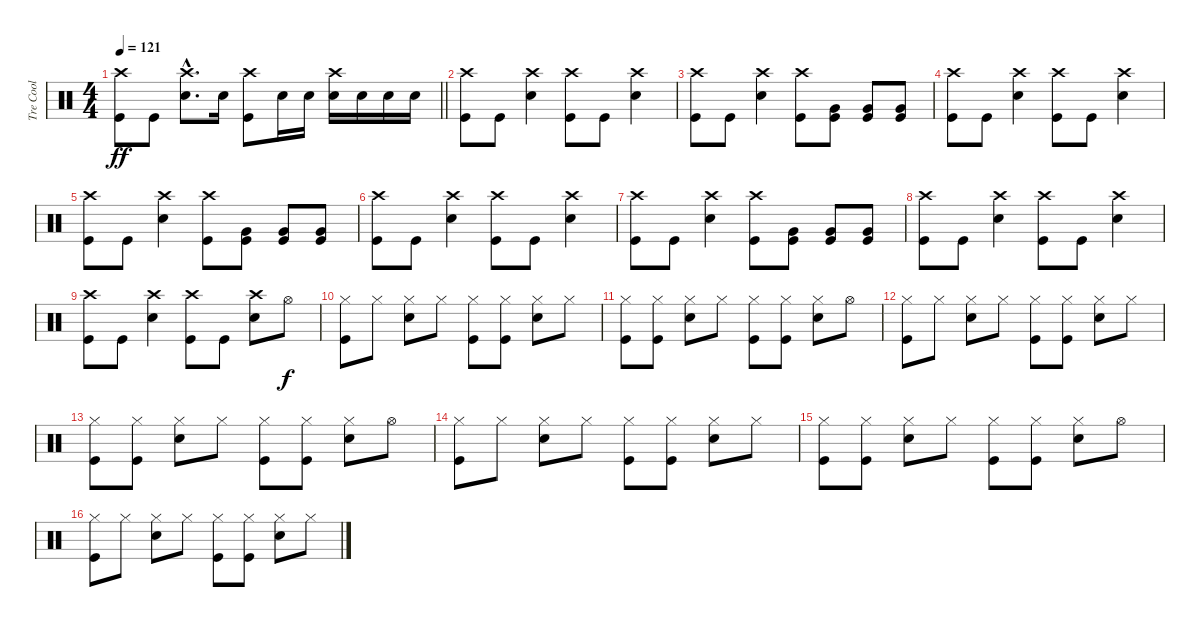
\track ("Tre Cool" "Tre Cool") {instrument percussion}
\staff {score}
\articulation defaults
\ts (4 4)
\tempo 121
\clef neutral
\barLineRight lightlight
\ks c
("Crash high (hit)" "Kick (hit)").8{dy ff} "Kick (hit)".8 ("Crash high (hit)"{hac} "Snare (hit) 2"{hac}).8{d} "Snare (hit) 2".16 ("Crash high (hit)" "Kick (hit)").8 "Snare (hit) 2".16 "Snare (hit) 2".16 ("Crash high (hit)" "Snare (hit) 2").16 "Snare (hit) 2".16 "Snare (hit) 2".16 "Snare (hit) 2".16 |
("Crash high (hit)" "Kick (hit)").8 "Kick (hit)".8 ("Crash high (hit)" "Snare (hit) 2").4 ("Crash high (hit)" "Kick (hit)").8 "Kick (hit)".8 ("Crash high (hit)" "Snare (hit) 2").4 |
("Crash high (hit)" "Kick (hit)").8 "Kick (hit)".8 ("Crash high (hit)" "Snare (hit) 2").4 ("Crash high (hit)" "Kick (hit)").8 ("Very Low Tom (hit)" "Kick (hit)").8 ("Very Low Tom (hit)" "Kick (hit)").8 ("Very Low Tom (hit)" "Kick (hit)").8 |
("Crash high (hit)" "Kick (hit)").8 "Kick (hit)".8 ("Crash high (hit)" "Snare (hit) 2").4 ("Crash high (hit)" "Kick (hit)").8 "Kick (hit)".8 ("Crash high (hit)" "Snare (hit) 2").4 |
("Crash high (hit)" "Kick (hit)").8 "Kick (hit)".8 ("Crash high (hit)" "Snare (hit) 2").4 ("Crash high (hit)" "Kick (hit)").8 ("Very Low Tom (hit)" "Kick (hit)").8 ("Very Low Tom (hit)" "Kick (hit)").8 ("Very Low Tom (hit)" "Kick (hit)").8 |
("Crash high (hit)" "Kick (hit)").8 "Kick (hit)".8 ("Crash high (hit)" "Snare (hit) 2").4 ("Crash high (hit)" "Kick (hit)").8 "Kick (hit)".8 ("Crash high (hit)" "Snare (hit) 2").4 |
("Crash high (hit)" "Kick (hit)").8 "Kick (hit)".8 ("Crash high (hit)" "Snare (hit) 2").4 ("Crash high (hit)" "Kick (hit)").8 ("Very Low Tom (hit)" "Kick (hit)").8 ("Very Low Tom (hit)" "Kick (hit)").8 ("Very Low Tom (hit)" "Kick (hit)").8 |
("Crash high (hit)" "Kick (hit)").8 "Kick (hit)".8 ("Crash high (hit)" "Snare (hit) 2").4 ("Crash high (hit)" "Kick (hit)").8 "Kick (hit)".8 ("Crash high (hit)" "Snare (hit) 2").4 |
("Crash high (hit)" "Kick (hit)").8 "Kick (hit)".8 ("Crash high (hit)" "Snare (hit) 2").4 ("Crash high (hit)" "Kick (hit)").8 "Kick (hit)".8 ("Crash high (hit)" "Snare (hit) 2").8 "Hi-Hat (open)".8{dy f} |
("Hi-Hat (closed)" "Kick (hit)").8 "Hi-Hat (closed)".8 ("Hi-Hat (closed)" "Snare (hit) 2").8 "Hi-Hat (closed)".8 ("Hi-Hat (closed)" "Kick (hit)").8 ("Hi-Hat (closed)" "Kick (hit)").8 ("Hi-Hat (closed)" "Snare (hit) 2").8 "Hi-Hat (closed)".8 |
("Hi-Hat (closed)" "Kick (hit)").8 ("Hi-Hat (closed)" "Kick (hit)").8 ("Hi-Hat (closed)" "Snare (hit) 2").8 "Hi-Hat (closed)".8 ("Hi-Hat (closed)" "Kick (hit)").8 ("Hi-Hat (closed)" "Kick (hit)").8 ("Hi-Hat (closed)" "Snare (hit) 2").8 "Hi-Hat (open)".8 |
("Hi-Hat (closed)" "Kick (hit)").8 "Hi-Hat (closed)".8 ("Hi-Hat (closed)" "Snare (hit) 2").8 "Hi-Hat (closed)".8 ("Hi-Hat (closed)" "Kick (hit)").8 ("Hi-Hat (closed)" "Kick (hit)").8 ("Hi-Hat (closed)" "Snare (hit) 2").8 "Hi-Hat (closed)".8 |
("Hi-Hat (closed)" "Kick (hit)").8 ("Hi-Hat (closed)" "Kick (hit)").8 ("Hi-Hat (closed)" "Snare (hit) 2").8 "Hi-Hat (closed)".8 ("Hi-Hat (closed)" "Kick (hit)").8 ("Hi-Hat (closed)" "Kick (hit)").8 ("Hi-Hat (closed)" "Snare (hit) 2").8 "Hi-Hat (open)".8 |
("Hi-Hat (closed)" "Kick (hit)").8 "Hi-Hat (closed)".8 ("Hi-Hat (closed)" "Snare (hit) 2").8 "Hi-Hat (closed)".8 ("Hi-Hat (closed)" "Kick (hit)").8 ("Hi-Hat (closed)" "Kick (hit)").8 ("Hi-Hat (closed)" "Snare (hit) 2").8 "Hi-Hat (closed)".8 |
("Hi-Hat (closed)" "Kick (hit)").8 ("Hi-Hat (closed)" "Kick (hit)").8 ("Hi-Hat (closed)" "Snare (hit) 2").8 "Hi-Hat (closed)".8 ("Hi-Hat (closed)" "Kick (hit)").8 ("Hi-Hat (closed)" "Kick (hit)").8 ("Hi-Hat (closed)" "Snare (hit) 2").8 "Hi-Hat (open)".8 |
("Hi-Hat (closed)" "Kick (hit)").8 "Hi-Hat (closed)".8 ("Hi-Hat (closed)" "Snare (hit) 2").8 "Hi-Hat (closed)".8 ("Hi-Hat (closed)" "Kick (hit)").8 ("Hi-Hat (closed)" "Kick (hit)").8 ("Hi-Hat (closed)" "Snare (hit) 2").8 "Hi-Hat (closed)".8
